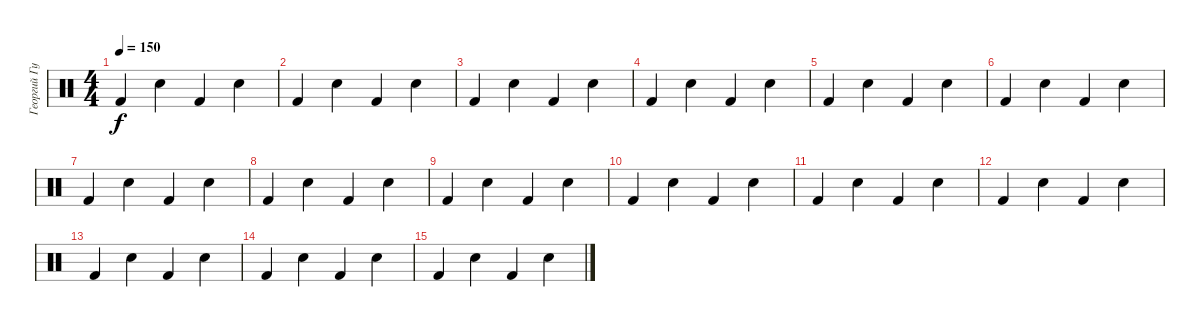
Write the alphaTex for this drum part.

\track ("Георгий Гурьянов" "Георгий Гу") {instrument percussion}
\staff {score}
\articulation defaults
\ts (4 4)
\tempo 150
\clef neutral
\ks c "Kick (hit) 2".4{dy f} "Snare (hit) 2".4 "Kick (hit) 2".4 "Snare (hit) 2".4
|
"Kick (hit) 2".4 "Snare (hit) 2".4 "Kick (hit) 2".4 "Snare (hit) 2".4 |
"Kick (hit) 2".4 "Snare (hit) 2".4 "Kick (hit) 2".4 "Snare (hit) 2".4 |
"Kick (hit) 2".4 "Snare (hit) 2".4 "Kick (hit) 2".4 "Snare (hit) 2".4 |
"Kick (hit) 2".4 "Snare (hit) 2".4 "Kick (hit) 2".4 "Snare (hit) 2".4 |
"Kick (hit) 2".4 "Snare (hit) 2".4 "Kick (hit) 2".4 "Snare (hit) 2".4 |
"Kick (hit) 2".4 "Snare (hit) 2".4 "Kick (hit) 2".4 "Snare (hit) 2".4 |
"Kick (hit) 2".4 "Snare (hit) 2".4 "Kick (hit) 2".4 "Snare (hit) 2".4 |
"Kick (hit) 2".4 "Snare (hit) 2".4 "Kick (hit) 2".4 "Snare (hit) 2".4 |
"Kick (hit) 2".4 "Snare (hit) 2".4 "Kick (hit) 2".4 "Snare (hit) 2".4 |
"Kick (hit) 2".4 "Snare (hit) 2".4 "Kick (hit) 2".4 "Snare (hit) 2".4 |
"Kick (hit) 2".4 "Snare (hit) 2".4 "Kick (hit) 2".4 "Snare (hit) 2".4 |
"Kick (hit) 2".4 "Snare (hit) 2".4 "Kick (hit) 2".4 "Snare (hit) 2".4 |
"Kick (hit) 2".4 "Snare (hit) 2".4 "Kick (hit) 2".4 "Snare (hit) 2".4 |
"Kick (hit) 2".4 "Snare (hit) 2".4 "Kick (hit) 2".4 "Snare (hit) 2".4
